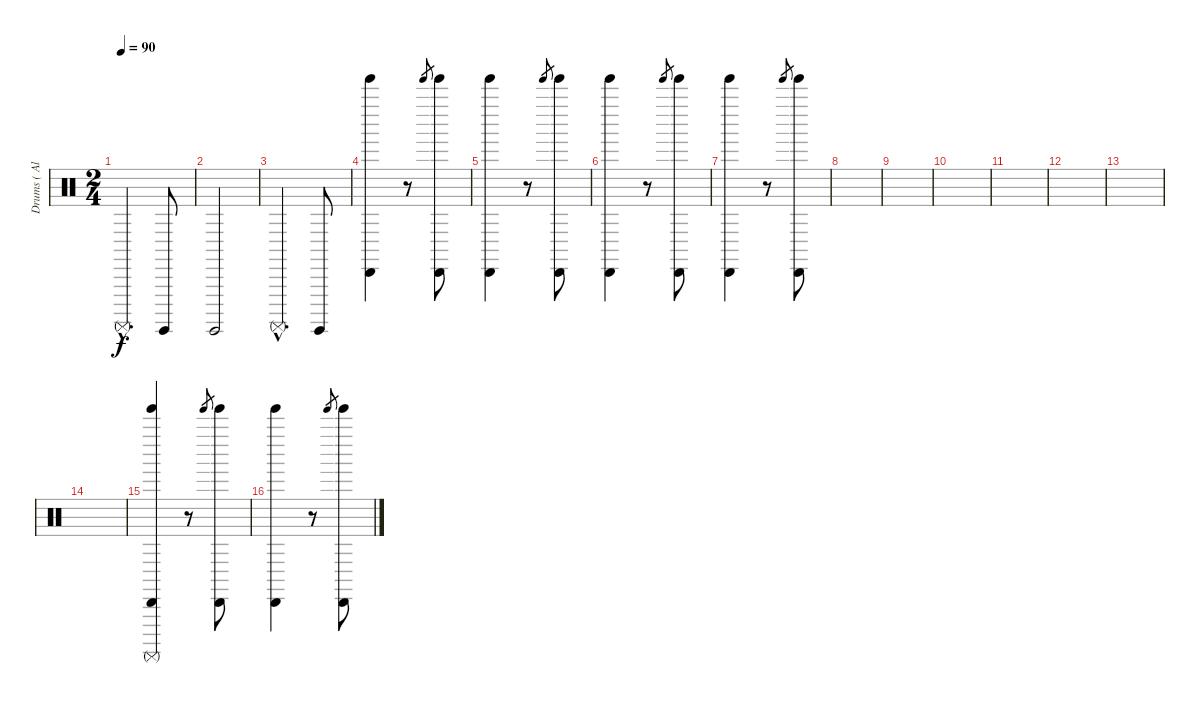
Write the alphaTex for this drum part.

\track ("Drums ( Alex Holzwarth)" "Drums ( Al") {instrument percussion}
\staff {score}
\articulation defaults
\ts (2 4)
\tempo 90
\clef neutral
\ks c "Surdo (mute)"{hac}.4{d dy f} "Surdo (hit)".8
|
"Surdo (hit)".2 |
"Surdo (mute)"{hac}.4{d} "Surdo (hit)".8 |
("Cabasa (hit)" "Tinkle Bell (hit)").4 r.8 "Tinkle Bell (hit)".8{gr} ("Cabasa (hit)" "Tinkle Bell (hit)").8 |
("Cabasa (hit)" "Tinkle Bell (hit)").4 r.8 "Tinkle Bell (hit)".8{gr} ("Cabasa (hit)" "Tinkle Bell (hit)").8 |
("Cabasa (hit)" "Tinkle Bell (hit)").4 r.8 "Tinkle Bell (hit)".8{gr} ("Cabasa (hit)" "Tinkle Bell (hit)").8 |
("Cabasa (hit)" "Tinkle Bell (hit)").4 r.8 "Tinkle Bell (hit)".8{gr} ("Cabasa (hit)" "Tinkle Bell (hit)").8 |
|
|
|
|
|
|
|
("Cabasa (hit)" "Surdo (mute)" "Tinkle Bell (hit)").4 r.8 "Tinkle Bell (hit)".8{gr} ("Cabasa (hit)" "Tinkle Bell (hit)").8 |
("Cabasa (hit)" "Tinkle Bell (hit)").4 r.8 "Tinkle Bell (hit)".8{gr} ("Cabasa (hit)" "Tinkle Bell (hit)").8
